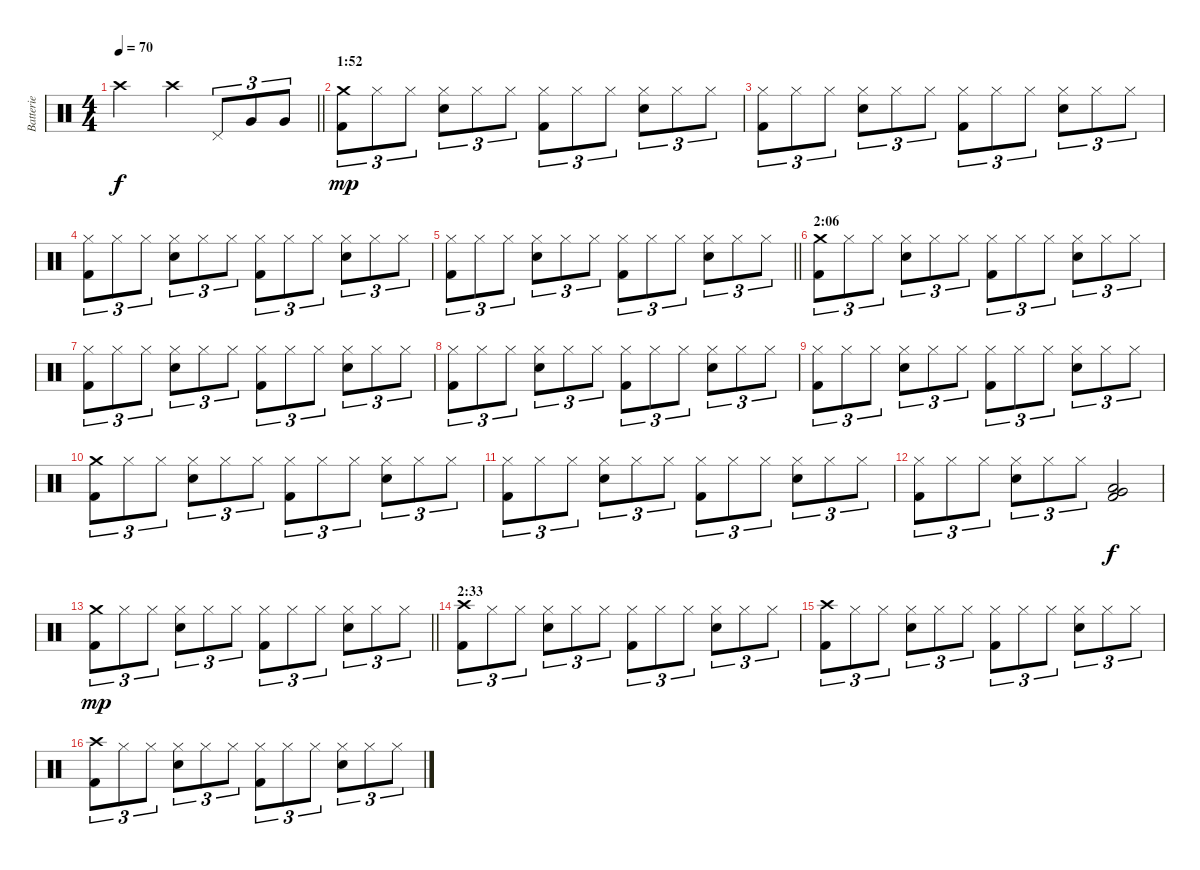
\track ("Batterie" "Batterie") {instrument percussion}
\staff {score}
\articulation defaults
\ts (4 4)
\tempo 70
\clef neutral
\barLineRight lightlight
\ks c "Crash high (hit)".2{dy f} "Crash high (hit)".4 "Pedal Hi-Hat (hit)".8{tu (3 2)} "Very Low Tom (hit)".8{tu (3 2)} "Very Low Tom (hit)".8{tu (3 2)}
|
\section ("" "1:52")
("Crash medium (hit)" "Kick (hit) 2").8{tu (3 2) dy mp} "Hi-Hat (closed)".8{tu (3 2)} "Hi-Hat (closed)".8{tu (3 2)} ("Hi-Hat (closed)" "Snare (hit) 2").8{tu (3 2)} "Hi-Hat (closed)".8{tu (3 2)} "Hi-Hat (closed)".8{tu (3 2)} ("Hi-Hat (closed)" "Kick (hit) 2").8{tu (3 2)} "Hi-Hat (closed)".8{tu (3 2)} "Hi-Hat (closed)".8{tu (3 2)} ("Hi-Hat (closed)" "Snare (hit) 2").8{tu (3 2)} "Hi-Hat (closed)".8{tu (3 2)} "Hi-Hat (closed)".8{tu (3 2)} |
("Hi-Hat (closed)" "Kick (hit) 2").8{tu (3 2)} "Hi-Hat (closed)".8{tu (3 2)} "Hi-Hat (closed)".8{tu (3 2)} ("Hi-Hat (closed)" "Snare (hit) 2").8{tu (3 2)} "Hi-Hat (closed)".8{tu (3 2)} "Hi-Hat (closed)".8{tu (3 2)} ("Hi-Hat (closed)" "Kick (hit) 2").8{tu (3 2)} "Hi-Hat (closed)".8{tu (3 2)} "Hi-Hat (closed)".8{tu (3 2)} ("Hi-Hat (closed)" "Snare (hit) 2").8{tu (3 2)} "Hi-Hat (closed)".8{tu (3 2)} "Hi-Hat (closed)".8{tu (3 2)} |
("Hi-Hat (closed)" "Kick (hit) 2").8{tu (3 2)} "Hi-Hat (closed)".8{tu (3 2)} "Hi-Hat (closed)".8{tu (3 2)} ("Hi-Hat (closed)" "Snare (hit) 2").8{tu (3 2)} "Hi-Hat (closed)".8{tu (3 2)} "Hi-Hat (closed)".8{tu (3 2)} ("Hi-Hat (closed)" "Kick (hit) 2").8{tu (3 2)} "Hi-Hat (closed)".8{tu (3 2)} "Hi-Hat (closed)".8{tu (3 2)} ("Hi-Hat (closed)" "Snare (hit) 2").8{tu (3 2)} "Hi-Hat (closed)".8{tu (3 2)} "Hi-Hat (closed)".8{tu (3 2)} |
\barLineRight lightlight
("Hi-Hat (closed)" "Kick (hit) 2").8{tu (3 2)} "Hi-Hat (closed)".8{tu (3 2)} "Hi-Hat (closed)".8{tu (3 2)} ("Hi-Hat (closed)" "Snare (hit) 2").8{tu (3 2)} "Hi-Hat (closed)".8{tu (3 2)} "Hi-Hat (closed)".8{tu (3 2)} ("Hi-Hat (closed)" "Kick (hit) 2").8{tu (3 2)} "Hi-Hat (closed)".8{tu (3 2)} "Hi-Hat (closed)".8{tu (3 2)} ("Hi-Hat (closed)" "Snare (hit) 2").8{tu (3 2)} "Hi-Hat (closed)".8{tu (3 2)} "Hi-Hat (closed)".8{tu (3 2)} |
\section ("" "2:06")
("Crash medium (hit)" "Kick (hit) 2").8{tu (3 2)} "Hi-Hat (closed)".8{tu (3 2)} "Hi-Hat (closed)".8{tu (3 2)} ("Hi-Hat (closed)" "Snare (hit) 2").8{tu (3 2)} "Hi-Hat (closed)".8{tu (3 2)} "Hi-Hat (closed)".8{tu (3 2)} ("Hi-Hat (closed)" "Kick (hit) 2").8{tu (3 2)} "Hi-Hat (closed)".8{tu (3 2)} "Hi-Hat (closed)".8{tu (3 2)} ("Hi-Hat (closed)" "Snare (hit) 2").8{tu (3 2)} "Hi-Hat (closed)".8{tu (3 2)} "Hi-Hat (closed)".8{tu (3 2)} |
("Hi-Hat (closed)" "Kick (hit) 2").8{tu (3 2)} "Hi-Hat (closed)".8{tu (3 2)} "Hi-Hat (closed)".8{tu (3 2)} ("Hi-Hat (closed)" "Snare (hit) 2").8{tu (3 2)} "Hi-Hat (closed)".8{tu (3 2)} "Hi-Hat (closed)".8{tu (3 2)} ("Hi-Hat (closed)" "Kick (hit) 2").8{tu (3 2)} "Hi-Hat (closed)".8{tu (3 2)} "Hi-Hat (closed)".8{tu (3 2)} ("Hi-Hat (closed)" "Snare (hit) 2").8{tu (3 2)} "Hi-Hat (closed)".8{tu (3 2)} "Hi-Hat (closed)".8{tu (3 2)} |
("Hi-Hat (closed)" "Kick (hit) 2").8{tu (3 2)} "Hi-Hat (closed)".8{tu (3 2)} "Hi-Hat (closed)".8{tu (3 2)} ("Hi-Hat (closed)" "Snare (hit) 2").8{tu (3 2)} "Hi-Hat (closed)".8{tu (3 2)} "Hi-Hat (closed)".8{tu (3 2)} ("Hi-Hat (closed)" "Kick (hit) 2").8{tu (3 2)} "Hi-Hat (closed)".8{tu (3 2)} "Hi-Hat (closed)".8{tu (3 2)} ("Hi-Hat (closed)" "Snare (hit) 2").8{tu (3 2)} "Hi-Hat (closed)".8{tu (3 2)} "Hi-Hat (closed)".8{tu (3 2)} |
("Hi-Hat (closed)" "Kick (hit) 2").8{tu (3 2)} "Hi-Hat (closed)".8{tu (3 2)} "Hi-Hat (closed)".8{tu (3 2)} ("Hi-Hat (closed)" "Snare (hit) 2").8{tu (3 2)} "Hi-Hat (closed)".8{tu (3 2)} "Hi-Hat (closed)".8{tu (3 2)} ("Hi-Hat (closed)" "Kick (hit) 2").8{tu (3 2)} "Hi-Hat (closed)".8{tu (3 2)} "Hi-Hat (closed)".8{tu (3 2)} ("Hi-Hat (closed)" "Snare (hit) 2").8{tu (3 2)} "Hi-Hat (closed)".8{tu (3 2)} "Hi-Hat (closed)".8{tu (3 2)} |
("Crash medium (hit)" "Kick (hit) 2").8{tu (3 2)} "Hi-Hat (closed)".8{tu (3 2)} "Hi-Hat (closed)".8{tu (3 2)} ("Hi-Hat (closed)" "Snare (hit) 2").8{tu (3 2)} "Hi-Hat (closed)".8{tu (3 2)} "Hi-Hat (closed)".8{tu (3 2)} ("Hi-Hat (closed)" "Kick (hit) 2").8{tu (3 2)} "Hi-Hat (closed)".8{tu (3 2)} "Hi-Hat (closed)".8{tu (3 2)} ("Hi-Hat (closed)" "Snare (hit) 2").8{tu (3 2)} "Hi-Hat (closed)".8{tu (3 2)} "Hi-Hat (closed)".8{tu (3 2)} |
("Hi-Hat (closed)" "Kick (hit) 2").8{tu (3 2)} "Hi-Hat (closed)".8{tu (3 2)} "Hi-Hat (closed)".8{tu (3 2)} ("Hi-Hat (closed)" "Snare (hit) 2").8{tu (3 2)} "Hi-Hat (closed)".8{tu (3 2)} "Hi-Hat (closed)".8{tu (3 2)} ("Hi-Hat (closed)" "Kick (hit) 2").8{tu (3 2)} "Hi-Hat (closed)".8{tu (3 2)} "Hi-Hat (closed)".8{tu (3 2)} ("Hi-Hat (closed)" "Snare (hit) 2").8{tu (3 2)} "Hi-Hat (closed)".8{tu (3 2)} "Hi-Hat (closed)".8{tu (3 2)} |
("Hi-Hat (closed)" "Kick (hit) 2").8{tu (3 2)} "Hi-Hat (closed)".8{tu (3 2)} "Hi-Hat (closed)".8{tu (3 2)} ("Hi-Hat (closed)" "Snare (hit) 2").8{tu (3 2)} "Hi-Hat (closed)".8{tu (3 2)} "Hi-Hat (closed)".8{tu (3 2)} ("Low Floor Tom (hit)" "Very Low Tom (hit)" "Kick (hit) 2").2{dy f} |
\barLineRight lightlight
("Crash medium (hit)" "Kick (hit) 2").8{tu (3 2) dy mp} "Hi-Hat (closed)".8{tu (3 2)} "Hi-Hat (closed)".8{tu (3 2)} ("Hi-Hat (closed)" "Snare (hit) 2").8{tu (3 2)} "Hi-Hat (closed)".8{tu (3 2)} "Hi-Hat (closed)".8{tu (3 2)} ("Hi-Hat (closed)" "Kick (hit) 2").8{tu (3 2)} "Hi-Hat (closed)".8{tu (3 2)} "Hi-Hat (closed)".8{tu (3 2)} ("Hi-Hat (closed)" "Snare (hit) 2").8{tu (3 2)} "Hi-Hat (closed)".8{tu (3 2)} "Hi-Hat (closed)".8{tu (3 2)} |
\section ("" "2:33")
("Crash high (hit)" "Kick (hit) 2").8{tu (3 2)} "Hi-Hat (closed)".8{tu (3 2)} "Hi-Hat (closed)".8{tu (3 2)} ("Hi-Hat (closed)" "Snare (hit) 2").8{tu (3 2)} "Hi-Hat (closed)".8{tu (3 2)} "Hi-Hat (closed)".8{tu (3 2)} ("Hi-Hat (closed)" "Kick (hit) 2").8{tu (3 2)} "Hi-Hat (closed)".8{tu (3 2)} "Hi-Hat (closed)".8{tu (3 2)} ("Hi-Hat (closed)" "Snare (hit) 2").8{tu (3 2)} "Hi-Hat (closed)".8{tu (3 2)} "Hi-Hat (closed)".8{tu (3 2)} |
("Crash high (hit)" "Kick (hit) 2").8{tu (3 2)} "Hi-Hat (closed)".8{tu (3 2)} "Hi-Hat (closed)".8{tu (3 2)} ("Hi-Hat (closed)" "Snare (hit) 2").8{tu (3 2)} "Hi-Hat (closed)".8{tu (3 2)} "Hi-Hat (closed)".8{tu (3 2)} ("Hi-Hat (closed)" "Kick (hit) 2").8{tu (3 2)} "Hi-Hat (closed)".8{tu (3 2)} "Hi-Hat (closed)".8{tu (3 2)} ("Hi-Hat (closed)" "Snare (hit) 2").8{tu (3 2)} "Hi-Hat (closed)".8{tu (3 2)} "Hi-Hat (closed)".8{tu (3 2)} |
("Crash high (hit)" "Kick (hit) 2").8{tu (3 2)} "Hi-Hat (closed)".8{tu (3 2)} "Hi-Hat (closed)".8{tu (3 2)} ("Hi-Hat (closed)" "Snare (hit) 2").8{tu (3 2)} "Hi-Hat (closed)".8{tu (3 2)} "Hi-Hat (closed)".8{tu (3 2)} ("Hi-Hat (closed)" "Kick (hit) 2").8{tu (3 2)} "Hi-Hat (closed)".8{tu (3 2)} "Hi-Hat (closed)".8{tu (3 2)} ("Hi-Hat (closed)" "Snare (hit) 2").8{tu (3 2)} "Hi-Hat (closed)".8{tu (3 2)} "Hi-Hat (closed)".8{tu (3 2)}
